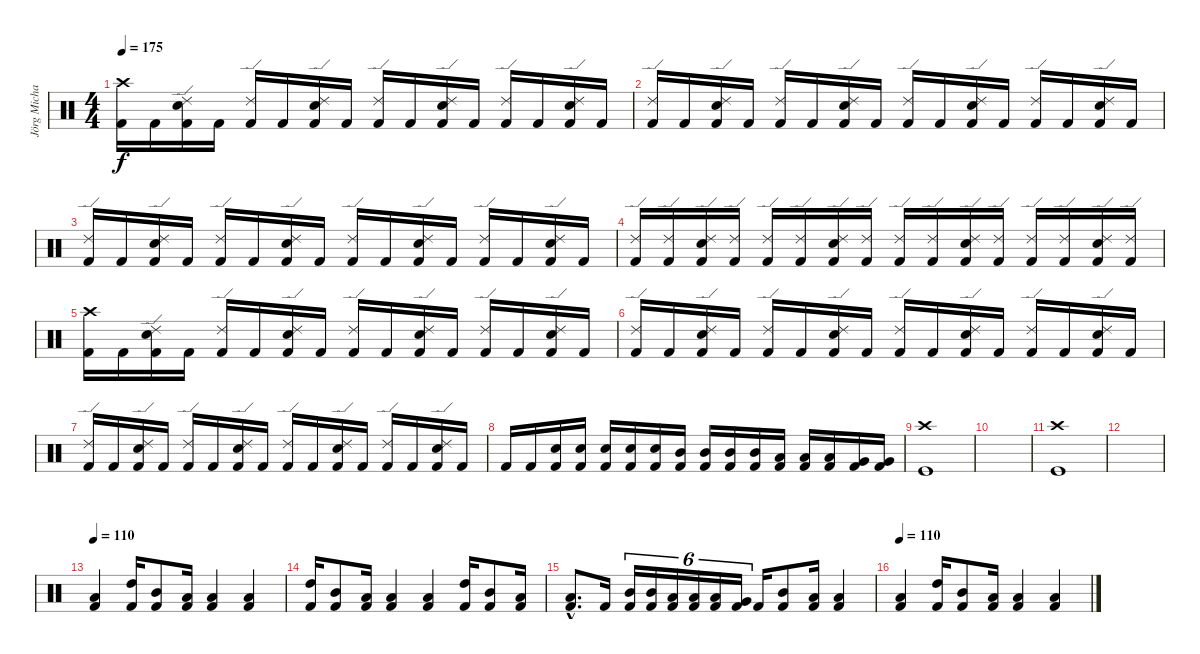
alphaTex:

\track ("Jörg Michael" "Jörg Micha") {instrument percussion}
\staff {score}
\articulation defaults
\ts (4 4)
\tempo 175
\clef neutral
\ks c
("Kick (hit) 2" "Crash high (hit)").16{dy f} "Kick (hit) 2".16 ("Kick (hit) 2" "Electric Snare (hit)" "Ride (edge) 2").16 "Kick (hit) 2".16 ("Kick (hit) 2" "Ride (edge) 2").16 "Kick (hit) 2".16 ("Kick (hit) 2" "Electric Snare (hit)" "Ride (edge) 2").16 "Kick (hit) 2".16 ("Kick (hit) 2" "Ride (edge) 2").16 "Kick (hit) 2".16 ("Kick (hit) 2" "Electric Snare (hit)" "Ride (edge) 2").16 "Kick (hit) 2".16 ("Kick (hit) 2" "Ride (edge) 2").16 "Kick (hit) 2".16 ("Kick (hit) 2" "Electric Snare (hit)" "Ride (edge) 2").16 "Kick (hit) 2".16 |
("Kick (hit) 2" "Ride (edge) 2").16 "Kick (hit) 2".16 ("Kick (hit) 2" "Electric Snare (hit)" "Ride (edge) 2").16 "Kick (hit) 2".16 ("Kick (hit) 2" "Ride (edge) 2").16 "Kick (hit) 2".16 ("Kick (hit) 2" "Electric Snare (hit)" "Ride (edge) 2").16 "Kick (hit) 2".16 ("Kick (hit) 2" "Ride (edge) 2").16 "Kick (hit) 2".16 ("Kick (hit) 2" "Electric Snare (hit)" "Ride (edge) 2").16 "Kick (hit) 2".16 ("Kick (hit) 2" "Ride (edge) 2").16 "Kick (hit) 2".16 ("Kick (hit) 2" "Electric Snare (hit)" "Ride (edge) 2").16 "Kick (hit) 2".16 |
("Kick (hit) 2" "Ride (edge) 2").16 "Kick (hit) 2".16 ("Kick (hit) 2" "Electric Snare (hit)" "Ride (edge) 2").16 "Kick (hit) 2".16 ("Kick (hit) 2" "Ride (edge) 2").16 "Kick (hit) 2".16 ("Kick (hit) 2" "Electric Snare (hit)" "Ride (edge) 2").16 "Kick (hit) 2".16 ("Kick (hit) 2" "Ride (edge) 2").16 "Kick (hit) 2".16 ("Kick (hit) 2" "Electric Snare (hit)" "Ride (edge) 2").16 "Kick (hit) 2".16 ("Kick (hit) 2" "Ride (edge) 2").16 "Kick (hit) 2".16 ("Kick (hit) 2" "Electric Snare (hit)" "Ride (edge) 2").16 "Kick (hit) 2".16 |
("Kick (hit) 2" "Ride (edge) 2").16 ("Kick (hit) 2" "Ride (edge) 2").16 ("Kick (hit) 2" "Electric Snare (hit)" "Ride (edge) 2").16 ("Kick (hit) 2" "Ride (edge) 2").16 ("Kick (hit) 2" "Ride (edge) 2").16 ("Kick (hit) 2" "Ride (edge) 2").16 ("Kick (hit) 2" "Electric Snare (hit)" "Ride (edge) 2").16 ("Kick (hit) 2" "Ride (edge) 2").16 ("Kick (hit) 2" "Ride (edge) 2").16 ("Kick (hit) 2" "Ride (edge) 2").16 ("Kick (hit) 2" "Electric Snare (hit)" "Ride (edge) 2").16 ("Kick (hit) 2" "Ride (edge) 2").16 ("Kick (hit) 2" "Ride (edge) 2").16 ("Kick (hit) 2" "Ride (edge) 2").16 ("Kick (hit) 2" "Electric Snare (hit)" "Ride (edge) 2").16 ("Kick (hit) 2" "Ride (edge) 2").16 |
("Kick (hit) 2" "Crash high (hit)").16 "Kick (hit) 2".16 ("Kick (hit) 2" "Electric Snare (hit)" "Ride (edge) 2").16 "Kick (hit) 2".16 ("Kick (hit) 2" "Ride (edge) 2").16 "Kick (hit) 2".16 ("Kick (hit) 2" "Electric Snare (hit)" "Ride (edge) 2").16 "Kick (hit) 2".16 ("Kick (hit) 2" "Ride (edge) 2").16 "Kick (hit) 2".16 ("Kick (hit) 2" "Electric Snare (hit)" "Ride (edge) 2").16 "Kick (hit) 2".16 ("Kick (hit) 2" "Ride (edge) 2").16 "Kick (hit) 2".16 ("Kick (hit) 2" "Electric Snare (hit)" "Ride (edge) 2").16 "Kick (hit) 2".16 |
("Kick (hit) 2" "Ride (edge) 2").16 "Kick (hit) 2".16 ("Kick (hit) 2" "Electric Snare (hit)" "Ride (edge) 2").16 "Kick (hit) 2".16 ("Kick (hit) 2" "Ride (edge) 2").16 "Kick (hit) 2".16 ("Kick (hit) 2" "Electric Snare (hit)" "Ride (edge) 2").16 "Kick (hit) 2".16 ("Kick (hit) 2" "Ride (edge) 2").16 "Kick (hit) 2".16 ("Kick (hit) 2" "Electric Snare (hit)" "Ride (edge) 2").16 "Kick (hit) 2".16 ("Kick (hit) 2" "Ride (edge) 2").16 "Kick (hit) 2".16 ("Kick (hit) 2" "Electric Snare (hit)" "Ride (edge) 2").16 "Kick (hit) 2".16 |
("Kick (hit) 2" "Ride (edge) 2").16 "Kick (hit) 2".16 ("Kick (hit) 2" "Electric Snare (hit)" "Ride (edge) 2").16 "Kick (hit) 2".16 ("Kick (hit) 2" "Ride (edge) 2").16 "Kick (hit) 2".16 ("Kick (hit) 2" "Electric Snare (hit)" "Ride (edge) 2").16 "Kick (hit) 2".16 ("Kick (hit) 2" "Ride (edge) 2").16 "Kick (hit) 2".16 ("Kick (hit) 2" "Electric Snare (hit)" "Ride (edge) 2").16 "Kick (hit) 2".16 ("Kick (hit) 2" "Ride (edge) 2").16 "Kick (hit) 2".16 ("Kick (hit) 2" "Electric Snare (hit)" "Ride (edge) 2").16 "Kick (hit) 2".16 |
"Kick (hit) 2".16 "Kick (hit) 2".16 ("Kick (hit) 2" "Electric Snare (hit)").16 ("Kick (hit) 2" "Electric Snare (hit)").16 ("Kick (hit) 2" "Electric Snare (hit)").16 ("Kick (hit) 2" "Electric Snare (hit)").16 ("Kick (hit) 2" "Electric Snare (hit)").16 ("Kick (hit) 2" "Mid Tom (hit)").16 ("Kick (hit) 2" "Mid Tom (hit)").16 ("Kick (hit) 2" "Mid Tom (hit)").16 ("Kick (hit) 2" "Mid Tom (hit)").16 ("Kick (hit) 2" "Low Tom (hit)").16 ("Kick (hit) 2" "Low Tom (hit)").16 ("Kick (hit) 2" "Low Tom (hit)").16 ("Kick (hit) 2" "Very Low Tom (hit)").16 ("Kick (hit) 2" "Very Low Tom (hit)").16 |
("Kick (hit)" "Crash high (hit)").1 |
|
("Kick (hit)" "Crash high (hit)").1 |
|
\tempo 110
("Kick (hit) 2" "Low Tom (hit)").4 ("Kick (hit) 2" "High Tom (hit)").16 ("Kick (hit) 2" "Mid Tom (hit)").8 ("Kick (hit) 2" "Low Tom (hit)").16 ("Kick (hit) 2" "Low Tom (hit)").4 ("Kick (hit) 2" "Low Tom (hit)").4 |
("Kick (hit) 2" "High Tom (hit)").16 ("Kick (hit) 2" "Mid Tom (hit)").8 ("Kick (hit) 2" "Low Tom (hit)").16 ("Kick (hit) 2" "Low Tom (hit)").4 ("Kick (hit) 2" "Low Tom (hit)").4 ("Kick (hit) 2" "High Tom (hit)").16 ("Kick (hit) 2" "Mid Tom (hit)").8 ("Kick (hit) 2" "Low Tom (hit)").16 |
("Kick (hit) 2"{hac} "Low Tom (hit)"{hac}).8{d} "Kick (hit) 2".16 ("Kick (hit) 2" "Mid Tom (hit)").16{tu (6 4)} ("Kick (hit) 2" "Mid Tom (hit)").16{tu (6 4)} ("Kick (hit) 2" "Low Tom (hit)").16{tu (6 4)} ("Kick (hit) 2" "Low Tom (hit)").16{tu (6 4)} ("Kick (hit) 2" "Low Tom (hit)").16{tu (6 4)} ("Kick (hit) 2" "Very Low Tom (hit)").16{tu (6 4)} "Kick (hit) 2".16 ("Kick (hit) 2" "Mid Tom (hit)").8 ("Kick (hit) 2" "Low Tom (hit)").16 ("Kick (hit) 2" "Low Tom (hit)").4 |
\tempo 110
("Kick (hit) 2" "Low Tom (hit)").4 ("Kick (hit) 2" "High Tom (hit)").16 ("Kick (hit) 2" "Mid Tom (hit)").8 ("Kick (hit) 2" "Low Tom (hit)").16 ("Kick (hit) 2" "Low Tom (hit)").4 ("Kick (hit) 2" "Low Tom (hit)").4
